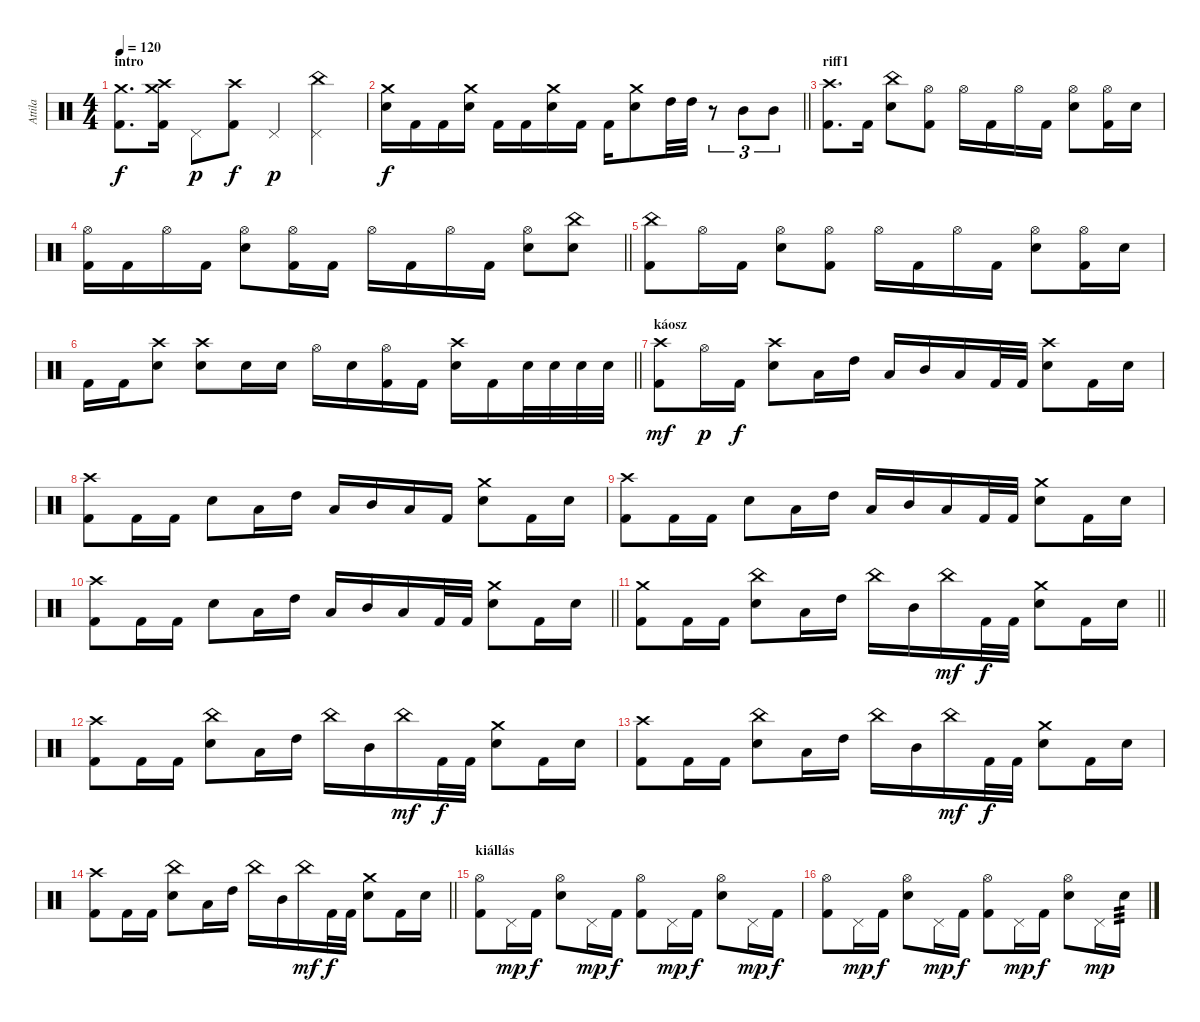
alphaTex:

\track ("Attila" "Attila") {instrument percussion}
\staff {score}
\articulation defaults
\ts (4 4)
\section ("" "intro")
\tempo 120
\clef neutral
\ks c
("Crash medium (hit)" "Kick (hit) 2").8{d dy f} ("Crash medium (hit)" "Crash high (hit)" "Kick (hit) 2").16 "Pedal Hi-Hat (hit)".8{dy p} ("Crash high (hit)" "Kick (hit) 2").8{dy f} "Pedal Hi-Hat (hit)".4{dy p} ("China (hit)" "Pedal Hi-Hat (hit)").4 |
\barLineRight lightlight
("Crash medium (hit)" "Electric Snare (hit)").16{dy f} "Kick (hit) 2".16 "Kick (hit) 2".16 ("Crash medium (hit)" "Electric Snare (hit)").16 "Kick (hit) 2".16 "Kick (hit) 2".16 ("Crash medium (hit)" "Electric Snare (hit)").16 "Kick (hit) 2".16 "Kick (hit) 2".16 ("Crash medium (hit)" "Electric Snare (hit)").8 "High Tom (hit)".32 "High Tom (hit)".32 r.8{tu (3 2)} "Mid Tom (hit)".8{tu (3 2)} "Mid Tom (hit)".8{tu (3 2)} |
\section ("" "riff1")
("Crash high (hit)" "Kick (hit) 2").8{d} "Kick (hit) 2".16 ("China (hit)" "Electric Snare (hit)").8 ("Hi-Hat (open)" "Kick (hit) 2").8 "Hi-Hat (open)".16 "Kick (hit) 2".16 "Hi-Hat (open)".16 "Kick (hit) 2".16 ("Hi-Hat (open)" "Electric Snare (hit)").8 ("Hi-Hat (open)" "Kick (hit) 2").16 "Electric Snare (hit)".16 |
\barLineRight lightlight
("Hi-Hat (open)" "Kick (hit) 2").16 "Kick (hit) 2".16 "Hi-Hat (open)".16 "Kick (hit) 2".16 ("Hi-Hat (open)" "Electric Snare (hit)").8 ("Hi-Hat (open)" "Kick (hit) 2").16 "Kick (hit) 2".16 "Hi-Hat (open)".16 "Kick (hit) 2".16 "Hi-Hat (open)".16 "Kick (hit) 2".16 ("Hi-Hat (open)" "Electric Snare (hit)").8 ("China (hit)" "Electric Snare (hit)").8 |
\section ("" "")
("China (hit)" "Kick (hit) 2").8 "Hi-Hat (open)".16 "Kick (hit) 2".16 ("Hi-Hat (open)" "Electric Snare (hit)").8 ("Hi-Hat (open)" "Kick (hit) 2").8 "Hi-Hat (open)".16 "Kick (hit) 2".16 "Hi-Hat (open)".16 "Kick (hit) 2".16 ("Hi-Hat (open)" "Electric Snare (hit)").8 ("Hi-Hat (open)" "Kick (hit) 2").16 "Electric Snare (hit)".16 |
\barLineRight lightlight "Kick (hit) 2".16 "Kick (hit) 2".16
("Crash high (hit)" "Electric Snare (hit)").8 ("Crash high (hit)" "Electric Snare (hit)").8 "Electric Snare (hit)".16 "Electric Snare (hit)".16 "Hi-Hat (open)".16 "Electric Snare (hit)".16 ("Hi-Hat (open)" "Kick (hit) 2").16 "Kick (hit) 2".16 ("Crash high (hit)" "Electric Snare (hit)").16 "Kick (hit) 2".16 "Electric Snare (hit)".32 "Electric Snare (hit)".32 "Electric Snare (hit)".32 "Electric Snare (hit)".32 |
\section ("" "káosz")
("Crash high (hit)" "Kick (hit) 2").8{dy mf} "Hi-Hat (open)".16{dy p} "Kick (hit) 2".16{dy f} ("Crash high (hit)" "Electric Snare (hit)").8 "Low Tom (hit)".16 "High Tom (hit)".16 "Low Tom (hit)".16 "Mid Tom (hit)".16 "Low Tom (hit)".16 "Kick (hit) 2".32 "Kick (hit) 2".32 ("Crash high (hit)" "Electric Snare (hit)").8 "Kick (hit) 2".16 "Electric Snare (hit)".16 |
("Crash high (hit)" "Kick (hit) 2").8 "Kick (hit) 2".16 "Kick (hit) 2".16 "Electric Snare (hit)".8 "Low Tom (hit)".16 "High Tom (hit)".16 "Low Tom (hit)".16 "Mid Tom (hit)".16 "Low Tom (hit)".16 "Kick (hit) 2".16 ("Crash medium (hit)" "Electric Snare (hit)").8 "Kick (hit) 2".16 "Electric Snare (hit)".16 |
("Crash high (hit)" "Kick (hit) 2").8 "Kick (hit) 2".16 "Kick (hit) 2".16 "Electric Snare (hit)".8 "Low Tom (hit)".16 "High Tom (hit)".16 "Low Tom (hit)".16 "Mid Tom (hit)".16 "Low Tom (hit)".16 "Kick (hit) 2".32 "Kick (hit) 2".32 ("Crash medium (hit)" "Electric Snare (hit)").8 "Kick (hit) 2".16 "Electric Snare (hit)".16 |
\barLineRight lightlight
("Crash high (hit)" "Kick (hit) 2").8 "Kick (hit) 2".16 "Kick (hit) 2".16 "Electric Snare (hit)".8 "Low Tom (hit)".16 "High Tom (hit)".16 "Low Tom (hit)".16 "Mid Tom (hit)".16 "Low Tom (hit)".16 "Kick (hit) 2".32 "Kick (hit) 2".32 ("Crash medium (hit)" "Electric Snare (hit)").8 "Kick (hit) 2".16 "Electric Snare (hit)".16 |
\barLineRight lightlight
("Crash medium (hit)" "Kick (hit) 2").8 "Kick (hit) 2".16 "Kick (hit) 2".16 ("China (hit)" "Electric Snare (hit)").8 "Low Tom (hit)".16 "High Tom (hit)".16 "China (hit)".16 "Mid Tom (hit)".16 "China (hit)".16{dy mf} "Kick (hit) 2".32{dy f} "Kick (hit) 2".32 ("Crash medium (hit)" "Electric Snare (hit)").8 "Kick (hit) 2".16 "Electric Snare (hit)".16 |
("Crash high (hit)" "Kick (hit) 2").8 "Kick (hit) 2".16 "Kick (hit) 2".16 ("China (hit)" "Electric Snare (hit)").8 "Low Tom (hit)".16 "High Tom (hit)".16 "China (hit)".16 "Mid Tom (hit)".16 "China (hit)".16{dy mf} "Kick (hit) 2".32{dy f} "Kick (hit) 2".32 ("Crash medium (hit)" "Electric Snare (hit)").8 "Kick (hit) 2".16 "Electric Snare (hit)".16 |
("Crash high (hit)" "Kick (hit) 2").8 "Kick (hit) 2".16 "Kick (hit) 2".16 ("China (hit)" "Electric Snare (hit)").8 "Low Tom (hit)".16 "High Tom (hit)".16 "China (hit)".16 "Mid Tom (hit)".16 "China (hit)".16{dy mf} "Kick (hit) 2".32{dy f} "Kick (hit) 2".32 ("Crash medium (hit)" "Electric Snare (hit)").8 "Kick (hit) 2".16 "Electric Snare (hit)".16 |
\barLineRight lightlight
("Crash high (hit)" "Kick (hit) 2").8 "Kick (hit) 2".16 "Kick (hit) 2".16 ("China (hit)" "Electric Snare (hit)").8 "Low Tom (hit)".16 "High Tom (hit)".16 "China (hit)".16 "Mid Tom (hit)".16 "China (hit)".16{dy mf} "Kick (hit) 2".32{dy f} "Kick (hit) 2".32 ("Crash medium (hit)" "Electric Snare (hit)").8 "Kick (hit) 2".16 "Electric Snare (hit)".16 |
\section ("" "kiállás")
("Hi-Hat (open)" "Kick (hit) 2").8 "Pedal Hi-Hat (hit)".16{dy mp} "Kick (hit) 2".16{dy f} ("Hi-Hat (open)" "Electric Snare (hit)").8 "Pedal Hi-Hat (hit)".16{dy mp} "Kick (hit) 2".16{dy f} ("Hi-Hat (open)" "Kick (hit) 2").8 "Pedal Hi-Hat (hit)".16{dy mp} "Kick (hit) 2".16{dy f} ("Hi-Hat (open)" "Electric Snare (hit)").8 "Pedal Hi-Hat (hit)".16{dy mp} "Kick (hit) 2".16{dy f} |
("Hi-Hat (open)" "Kick (hit) 2").8 "Pedal Hi-Hat (hit)".16{dy mp} "Kick (hit) 2".16{dy f} ("Hi-Hat (open)" "Electric Snare (hit)").8 "Pedal Hi-Hat (hit)".16{dy mp} "Kick (hit) 2".16{dy f} ("Hi-Hat (open)" "Kick (hit) 2").8 "Pedal Hi-Hat (hit)".16{dy mp} "Kick (hit) 2".16{dy f} ("Hi-Hat (open)" "Electric Snare (hit)").8 "Pedal Hi-Hat (hit)".16{dy mp} "Electric Snare (hit)".16{tp 3}
